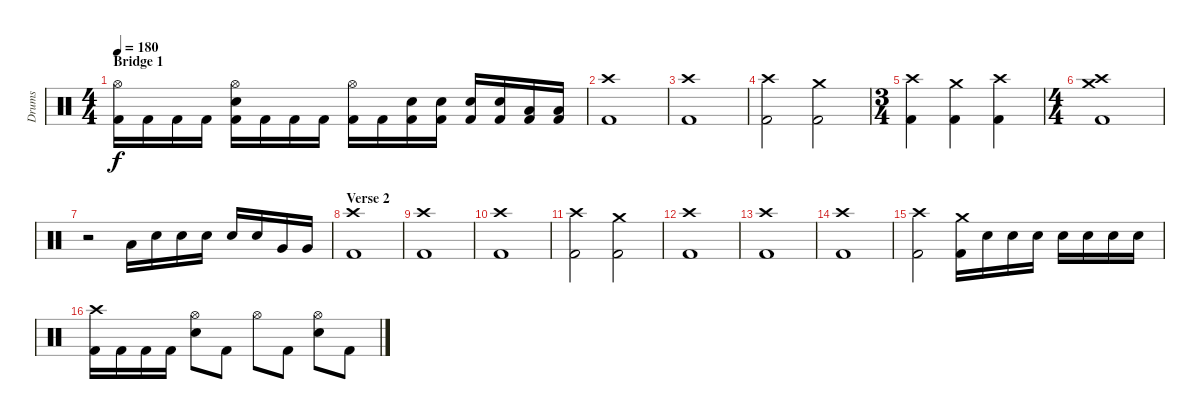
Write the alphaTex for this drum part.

\track ("Drums" "Drums") {instrument percussion}
\staff {score}
\articulation defaults
\ts (4 4)
\section ("" "Bridge 1")
\tempo 180
\clef neutral
\ks c
("Hi-Hat (open)" "Kick (hit) 2").16{dy f} "Kick (hit) 2".16 "Kick (hit) 2".16 "Kick (hit) 2".16 ("Hi-Hat (open)" "Electric Snare (hit)" "Kick (hit) 2").16 "Kick (hit) 2".16 "Kick (hit) 2".16 "Kick (hit) 2".16 ("Hi-Hat (open)" "Kick (hit) 2").16 "Kick (hit) 2".16 ("Electric Snare (hit)" "Kick (hit) 2").16 ("Electric Snare (hit)" "Kick (hit) 2").16 ("Electric Snare (hit)" "Kick (hit) 2").16 ("Electric Snare (hit)" "Kick (hit) 2").16 ("Low Tom (hit)" "Kick (hit) 2").16 ("Low Tom (hit)" "Kick (hit) 2").16 |
("Crash high (hit)" "Kick (hit) 2").1 |
("Crash high (hit)" "Kick (hit) 2").1 |
("Crash high (hit)" "Kick (hit) 2").2 ("Crash medium (hit)" "Kick (hit) 2").2 |
\ts (3 4)
("Crash high (hit)" "Kick (hit) 2").4 ("Crash medium (hit)" "Kick (hit) 2").4 ("Crash high (hit)" "Kick (hit) 2").4 |
\ts (4 4)
("Crash high (hit)" "Crash medium (hit)" "Kick (hit) 2").1 |
r.2 "Low Tom (hit)".16 "Electric Snare (hit)".16 "Electric Snare (hit)".16 "Electric Snare (hit)".16 "Electric Snare (hit)".16 "Electric Snare (hit)".16 "Very Low Tom (hit)".16 "Very Low Tom (hit)".16 |
\section ("" "Verse 2")
("Crash high (hit)" "Kick (hit) 2").1 |
("Crash high (hit)" "Kick (hit) 2").1 |
("Crash high (hit)" "Kick (hit) 2").1 |
("Crash high (hit)" "Kick (hit) 2").2 ("Crash medium (hit)" "Kick (hit) 2").2 |
("Crash high (hit)" "Kick (hit) 2").1 |
("Crash high (hit)" "Kick (hit) 2").1 |
("Crash high (hit)" "Kick (hit) 2").1 |
("Crash high (hit)" "Kick (hit) 2").2 ("Crash medium (hit)" "Kick (hit) 2").16 "Electric Snare (hit)".16 "Electric Snare (hit)".16 "Electric Snare (hit)".16 "Electric Snare (hit)".16 "Electric Snare (hit)".16 "Electric Snare (hit)".16 "Electric Snare (hit)".16 |
("Crash high (hit)" "Kick (hit) 2").16 "Kick (hit) 2".16 "Kick (hit) 2".16 "Kick (hit) 2".16 ("Hi-Hat (open)" "Electric Snare (hit)").8 "Kick (hit) 2".8 "Hi-Hat (open)".8 "Kick (hit) 2".8 ("Hi-Hat (open)" "Electric Snare (hit)").8 "Kick (hit) 2".8
